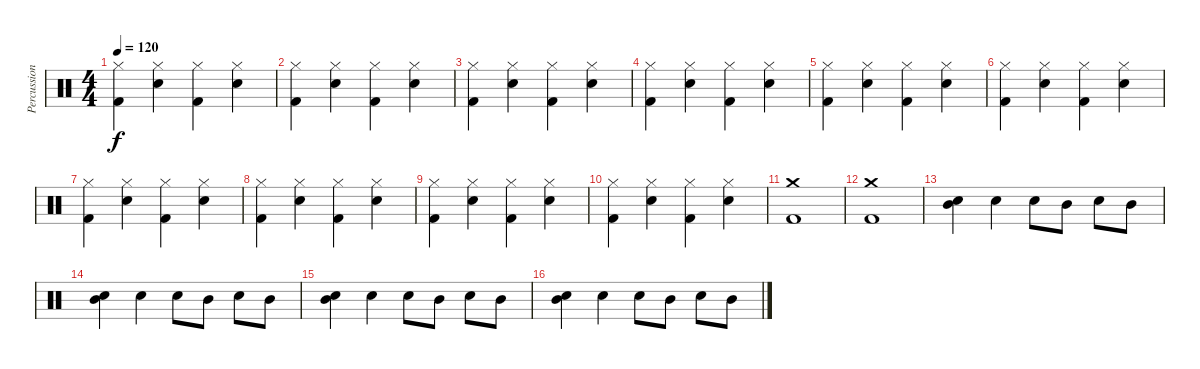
\track ("Percussion" "Percussion") {instrument percussion}
\staff {score}
\articulation defaults
\ts (4 4)
\tempo 120
\clef neutral
\ks c
("Hi-Hat (closed)" "Kick (hit) 2").4{dy f} ("Electric Snare (hit)" "Hi-Hat (closed)").4 ("Hi-Hat (closed)" "Kick (hit) 2").4 ("Electric Snare (hit)" "Hi-Hat (closed)").4 |
("Hi-Hat (closed)" "Kick (hit) 2").4 ("Electric Snare (hit)" "Hi-Hat (closed)").4 ("Hi-Hat (closed)" "Kick (hit) 2").4 ("Electric Snare (hit)" "Hi-Hat (closed)").4 |
("Hi-Hat (closed)" "Kick (hit) 2").4 ("Electric Snare (hit)" "Hi-Hat (closed)").4 ("Hi-Hat (closed)" "Kick (hit) 2").4 ("Electric Snare (hit)" "Hi-Hat (closed)").4 |
("Hi-Hat (closed)" "Kick (hit) 2").4 ("Electric Snare (hit)" "Hi-Hat (closed)").4 ("Hi-Hat (closed)" "Kick (hit) 2").4 ("Electric Snare (hit)" "Hi-Hat (closed)").4 |
("Hi-Hat (closed)" "Kick (hit) 2").4 ("Electric Snare (hit)" "Hi-Hat (closed)").4 ("Hi-Hat (closed)" "Kick (hit) 2").4 ("Electric Snare (hit)" "Hi-Hat (closed)").4 |
("Hi-Hat (closed)" "Kick (hit) 2").4 ("Electric Snare (hit)" "Hi-Hat (closed)").4 ("Hi-Hat (closed)" "Kick (hit) 2").4 ("Electric Snare (hit)" "Hi-Hat (closed)").4 |
("Hi-Hat (closed)" "Kick (hit) 2").4 ("Electric Snare (hit)" "Hi-Hat (closed)").4 ("Hi-Hat (closed)" "Kick (hit) 2").4 ("Electric Snare (hit)" "Hi-Hat (closed)").4 |
("Hi-Hat (closed)" "Kick (hit) 2").4 ("Electric Snare (hit)" "Hi-Hat (closed)").4 ("Hi-Hat (closed)" "Kick (hit) 2").4 ("Electric Snare (hit)" "Hi-Hat (closed)").4 |
("Hi-Hat (closed)" "Kick (hit) 2").4 ("Electric Snare (hit)" "Hi-Hat (closed)").4 ("Hi-Hat (closed)" "Kick (hit) 2").4 ("Electric Snare (hit)" "Hi-Hat (closed)").4 |
("Hi-Hat (closed)" "Kick (hit) 2").4 ("Electric Snare (hit)" "Hi-Hat (closed)").4 ("Hi-Hat (closed)" "Kick (hit) 2").4 ("Electric Snare (hit)" "Hi-Hat (closed)").4 |
("Kick (hit) 2" "Crash medium (hit)").1 |
("Kick (hit) 2" "Crash medium (hit)").1 |
("Electric Snare (hit)" "Mid Tom (hit)").4 "Electric Snare (hit)".4 "Electric Snare (hit)".8 "Mid Tom (hit)".8 "Electric Snare (hit)".8 "Mid Tom (hit)".8 |
("Electric Snare (hit)" "Mid Tom (hit)").4 "Electric Snare (hit)".4 "Electric Snare (hit)".8 "Mid Tom (hit)".8 "Electric Snare (hit)".8 "Mid Tom (hit)".8 |
("Electric Snare (hit)" "Mid Tom (hit)").4 "Electric Snare (hit)".4 "Electric Snare (hit)".8 "Mid Tom (hit)".8 "Electric Snare (hit)".8 "Mid Tom (hit)".8 |
("Electric Snare (hit)" "Mid Tom (hit)").4 "Electric Snare (hit)".4 "Electric Snare (hit)".8 "Mid Tom (hit)".8 "Electric Snare (hit)".8 "Mid Tom (hit)".8
